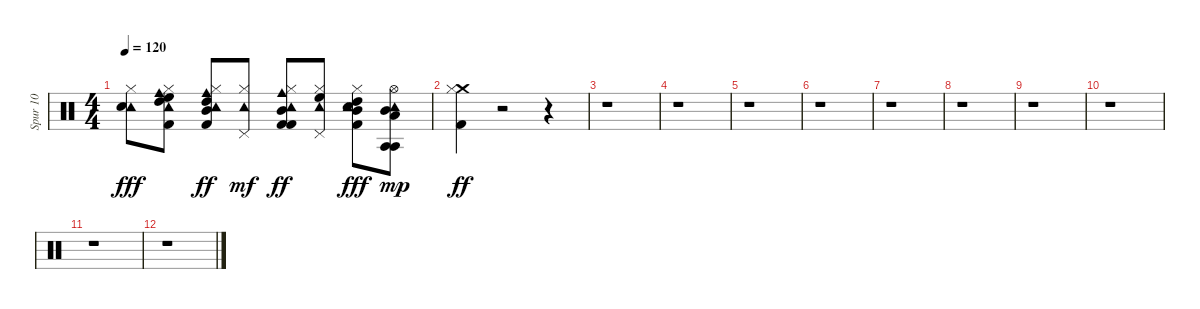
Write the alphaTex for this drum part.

\track ("Spur 10" "Spur 10") {instrument percussion}
\staff {score}
\articulation defaults
\ts (4 4)
\tempo 120
\clef neutral
\ks c
("Tambourine (hit)" "Electric Snare (hit)" "Hi-Hat (closed)").8{dy fff} ("Tambourine (hit)" "Cowbell medium (hit)" "Hi-Hat (closed)" "Kick (hit) 2" "High Floor Tom (hit)" "High Tom (hit)").8 ("Tambourine (hit)" "Hi-Hat (closed)" "Cowbell medium (hit)" "Kick (hit) 2" "High Tom (hit)" "Mid Tom (hit)").8{dy ff} ("Tambourine (hit)" "Hi-Hat (closed)" "Pedal Hi-Hat (hit)").8{dy mf} ("Tambourine (hit)" "Cowbell medium (hit)" "Kick (hit) 2" "Hi-Hat (closed)" "Kick (hit) 2" "Mid Tom (hit)").8{dy ff} ("Tambourine (hit)" "Hi-Hat (closed)" "Pedal Hi-Hat (hit)" "High Floor Tom (hit)").8 ("Tambourine (hit)" "High Tom (hit)" "Hi-Hat (closed)" "Kick (hit) 2" "Electric Snare (hit)" "Mid Tom (hit)").8{dy fff} ("Agogo tow (hit)" "Tambourine (hit)" "Hi-Hat (open)" "Mid Tom (hit)" "Low Tom (hit)" "Agogo tow (hit)").8{dy mp} |
("Kick (hit) 2" "Crash medium (hit)" "Hi-Hat (closed)").4{dy ff} r.2 r.4 |
r.1 |
r.1 |
r.1 |
r.1 |
r.1 |
r.1 |
r.1 |
r.1 |
r.1 |
r.1
